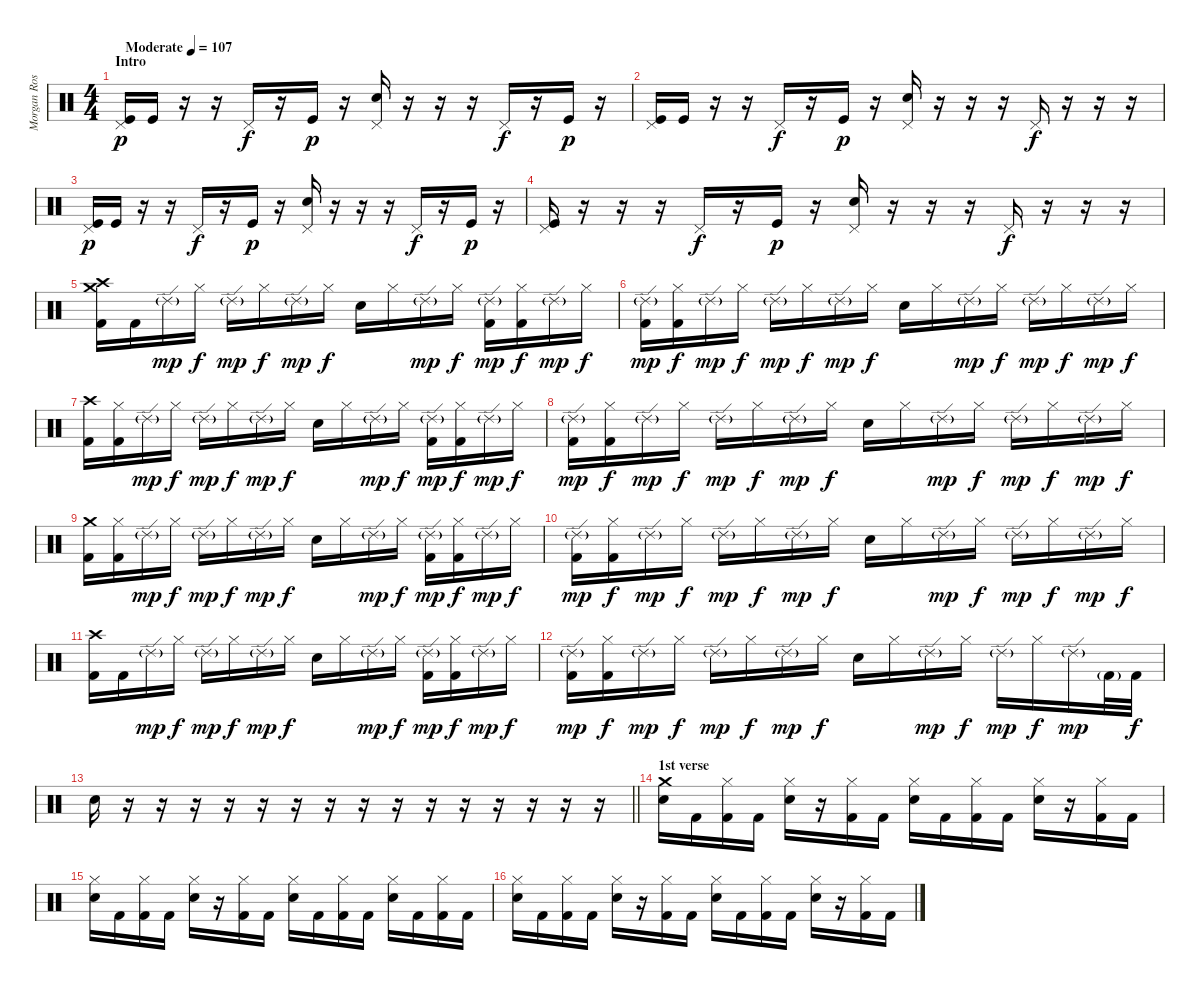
\track ("Morgan Rose" "Morgan Ros") {instrument percussion}
\staff {score}
\articulation defaults
\ts (4 4)
\section ("" "Intro")
\tempo (107 "Moderate")
\clef neutral
\ks c
("Pedal Hi-Hat (hit)" "Kick (hit)").16{dy p} "Kick (hit)".16 r.16 r.16 "Pedal Hi-Hat (hit)".16{dy f} r.16 "Kick (hit)".16{dy p} r.16 ("Pedal Hi-Hat (hit)" "Electric Snare (hit)").16 r.16 r.16 r.16 "Pedal Hi-Hat (hit)".16{dy f} r.16 "Kick (hit)".16{dy p} r.16 |
("Pedal Hi-Hat (hit)" "Kick (hit)").16 "Kick (hit)".16 r.16 r.16 "Pedal Hi-Hat (hit)".16{dy f} r.16 "Kick (hit)".16{dy p} r.16 ("Pedal Hi-Hat (hit)" "Electric Snare (hit)").16 r.16 r.16 r.16 "Pedal Hi-Hat (hit)".16{dy f} r.16 r.16 r.16 |
("Pedal Hi-Hat (hit)" "Kick (hit)").16{dy p} "Kick (hit)".16 r.16 r.16 "Pedal Hi-Hat (hit)".16{dy f} r.16 "Kick (hit)".16{dy p} r.16 ("Pedal Hi-Hat (hit)" "Electric Snare (hit)").16 r.16 r.16 r.16 "Pedal Hi-Hat (hit)".16{dy f} r.16 "Kick (hit)".16{dy p} r.16 |
("Pedal Hi-Hat (hit)" "Kick (hit)").16 r.16 r.16 r.16 "Pedal Hi-Hat (hit)".16{dy f} r.16 "Kick (hit)".16{dy p} r.16 ("Pedal Hi-Hat (hit)" "Electric Snare (hit)").16 r.16 r.16 r.16 "Pedal Hi-Hat (hit)".16{dy f} r.16 r.16 r.16 |
("Crash medium (hit)" "Crash high (hit)" "Kick (hit) 2").16 "Kick (hit) 2".16 "Ride (edge) 2"{g}.16{dy mp} "Hi-Hat (closed)".16{dy f} "Ride (edge) 2"{g}.16{dy mp} "Hi-Hat (closed)".16{dy f} "Ride (edge) 2"{g}.16{dy mp} "Hi-Hat (closed)".16{dy f} "Snare (hit) 2".16 "Hi-Hat (closed)".16 "Ride (edge) 2"{g}.16{dy mp} "Hi-Hat (closed)".16{dy f} ("Ride (edge) 2"{g} "Kick (hit) 2").16{dy mp} ("Hi-Hat (closed)" "Kick (hit) 2").16{dy f} "Ride (edge) 2"{g}.16{dy mp} "Hi-Hat (closed)".16{dy f} |
("Ride (edge) 2"{g} "Kick (hit) 2").16{dy mp} ("Hi-Hat (closed)" "Kick (hit) 2").16{dy f} "Ride (edge) 2"{g}.16{dy mp} "Hi-Hat (closed)".16{dy f} "Ride (edge) 2"{g}.16{dy mp} "Hi-Hat (closed)".16{dy f} "Ride (edge) 2"{g}.16{dy mp} "Hi-Hat (closed)".16{dy f} "Snare (hit) 2".16 "Hi-Hat (closed)".16 "Ride (edge) 2"{g}.16{dy mp} "Hi-Hat (closed)".16{dy f} "Ride (edge) 2"{g}.16{dy mp} "Hi-Hat (closed)".16{dy f} "Ride (edge) 2"{g}.16{dy mp} "Hi-Hat (closed)".16{dy f} |
("Crash high (hit)" "Kick (hit) 2").16 ("Hi-Hat (closed)" "Kick (hit) 2").16 "Ride (edge) 2"{g}.16{dy mp} "Hi-Hat (closed)".16{dy f} "Ride (edge) 2"{g}.16{dy mp} "Hi-Hat (closed)".16{dy f} "Ride (edge) 2"{g}.16{dy mp} "Hi-Hat (closed)".16{dy f} "Snare (hit) 2".16 "Hi-Hat (closed)".16 "Ride (edge) 2"{g}.16{dy mp} "Hi-Hat (closed)".16{dy f} ("Ride (edge) 2"{g} "Kick (hit) 2").16{dy mp} ("Hi-Hat (closed)" "Kick (hit) 2").16{dy f} "Ride (edge) 2"{g}.16{dy mp} "Hi-Hat (closed)".16{dy f} |
("Ride (edge) 2"{g} "Kick (hit) 2").16{dy mp} ("Hi-Hat (closed)" "Kick (hit) 2").16{dy f} "Ride (edge) 2"{g}.16{dy mp} "Hi-Hat (closed)".16{dy f} "Ride (edge) 2"{g}.16{dy mp} "Hi-Hat (closed)".16{dy f} "Ride (edge) 2"{g}.16{dy mp} "Hi-Hat (closed)".16{dy f} "Snare (hit) 2".16 "Hi-Hat (closed)".16 "Ride (edge) 2"{g}.16{dy mp} "Hi-Hat (closed)".16{dy f} "Ride (edge) 2"{g}.16{dy mp} "Hi-Hat (closed)".16{dy f} "Ride (edge) 2"{g}.16{dy mp} "Hi-Hat (closed)".16{dy f} |
("Crash medium (hit)" "Kick (hit) 2").16 ("Hi-Hat (closed)" "Kick (hit) 2").16 "Ride (edge) 2"{g}.16{dy mp} "Hi-Hat (closed)".16{dy f} "Ride (edge) 2"{g}.16{dy mp} "Hi-Hat (closed)".16{dy f} "Ride (edge) 2"{g}.16{dy mp} "Hi-Hat (closed)".16{dy f} "Snare (hit) 2".16 "Hi-Hat (closed)".16 "Ride (edge) 2"{g}.16{dy mp} "Hi-Hat (closed)".16{dy f} ("Ride (edge) 2"{g} "Kick (hit) 2").16{dy mp} ("Hi-Hat (closed)" "Kick (hit) 2").16{dy f} "Ride (edge) 2"{g}.16{dy mp} "Hi-Hat (closed)".16{dy f} |
("Ride (edge) 2"{g} "Kick (hit) 2").16{dy mp} ("Hi-Hat (closed)" "Kick (hit) 2").16{dy f} "Ride (edge) 2"{g}.16{dy mp} "Hi-Hat (closed)".16{dy f} "Ride (edge) 2"{g}.16{dy mp} "Hi-Hat (closed)".16{dy f} "Ride (edge) 2"{g}.16{dy mp} "Hi-Hat (closed)".16{dy f} "Snare (hit) 2".16 "Hi-Hat (closed)".16 "Ride (edge) 2"{g}.16{dy mp} "Hi-Hat (closed)".16{dy f} "Ride (edge) 2"{g}.16{dy mp} "Hi-Hat (closed)".16{dy f} "Ride (edge) 2"{g}.16{dy mp} "Hi-Hat (closed)".16{dy f} |
("Crash high (hit)" "Kick (hit) 2").16 "Kick (hit) 2".16 "Ride (edge) 2"{g}.16{dy mp} "Hi-Hat (closed)".16{dy f} "Ride (edge) 2"{g}.16{dy mp} "Hi-Hat (closed)".16{dy f} "Ride (edge) 2"{g}.16{dy mp} "Hi-Hat (closed)".16{dy f} "Snare (hit) 2".16 "Hi-Hat (closed)".16 "Ride (edge) 2"{g}.16{dy mp} "Hi-Hat (closed)".16{dy f} ("Ride (edge) 2"{g} "Kick (hit) 2").16{dy mp} ("Hi-Hat (closed)" "Kick (hit) 2").16{dy f} "Ride (edge) 2"{g}.16{dy mp} "Hi-Hat (closed)".16{dy f} |
("Ride (edge) 2"{g} "Kick (hit) 2").16{dy mp} ("Hi-Hat (closed)" "Kick (hit) 2").16{dy f} "Ride (edge) 2"{g}.16{dy mp} "Hi-Hat (closed)".16{dy f} "Ride (edge) 2"{g}.16{dy mp} "Hi-Hat (closed)".16{dy f} "Ride (edge) 2"{g}.16{dy mp} "Hi-Hat (closed)".16{dy f} "Snare (hit) 2".16 "Hi-Hat (closed)".16 "Ride (edge) 2"{g}.16{dy mp} "Hi-Hat (closed)".16{dy f} "Ride (edge) 2"{g}.16{dy mp} "Hi-Hat (closed)".16{dy f} "Ride (edge) 2"{g}.16{dy mp} "Kick (hit) 2"{g}.32 "Kick (hit) 2".32{dy f} |
\barLineRight lightlight "Snare (hit) 2".16
r.16 r.16 r.16 r.16 r.16 r.16 r.16 r.16 r.16 r.16 r.16 r.16 r.16 r.16 r.16 |
\section ("" "1st verse")
("Crash medium (hit)" "Snare (hit) 2").16 "Kick (hit) 2".16 ("Hi-Hat (closed)" "Kick (hit) 2").16 "Kick (hit) 2".16 ("Hi-Hat (closed)" "Snare (hit) 2").16 r.16 ("Hi-Hat (closed)" "Kick (hit) 2").16 "Kick (hit) 2".16 ("Hi-Hat (closed)" "Snare (hit) 2").16 "Kick (hit) 2".16 ("Hi-Hat (closed)" "Kick (hit) 2").16 "Kick (hit) 2".16 ("Hi-Hat (closed)" "Snare (hit) 2").16 r.16 ("Hi-Hat (closed)" "Kick (hit) 2").16 "Kick (hit) 2".16 |
("Hi-Hat (closed)" "Snare (hit) 2").16 "Kick (hit) 2".16 ("Hi-Hat (closed)" "Kick (hit) 2").16 "Kick (hit) 2".16 ("Hi-Hat (closed)" "Snare (hit) 2").16 r.16 ("Hi-Hat (closed)" "Kick (hit) 2").16 "Kick (hit) 2".16 ("Hi-Hat (closed)" "Snare (hit) 2").16 "Kick (hit) 2".16 ("Hi-Hat (closed)" "Kick (hit) 2").16 "Kick (hit) 2".16 ("Hi-Hat (closed)" "Snare (hit) 2").16 "Kick (hit) 2".16 ("Hi-Hat (closed)" "Kick (hit) 2").16 "Kick (hit) 2".16 |
("Hi-Hat (closed)" "Snare (hit) 2").16 "Kick (hit) 2".16 ("Hi-Hat (closed)" "Kick (hit) 2").16 "Kick (hit) 2".16 ("Hi-Hat (closed)" "Snare (hit) 2").16 r.16 ("Hi-Hat (closed)" "Kick (hit) 2").16 "Kick (hit) 2".16 ("Hi-Hat (closed)" "Snare (hit) 2").16 "Kick (hit) 2".16 ("Hi-Hat (closed)" "Kick (hit) 2").16 "Kick (hit) 2".16 ("Hi-Hat (closed)" "Snare (hit) 2").16 r.16 ("Hi-Hat (closed)" "Kick (hit) 2").16 "Kick (hit) 2".16
